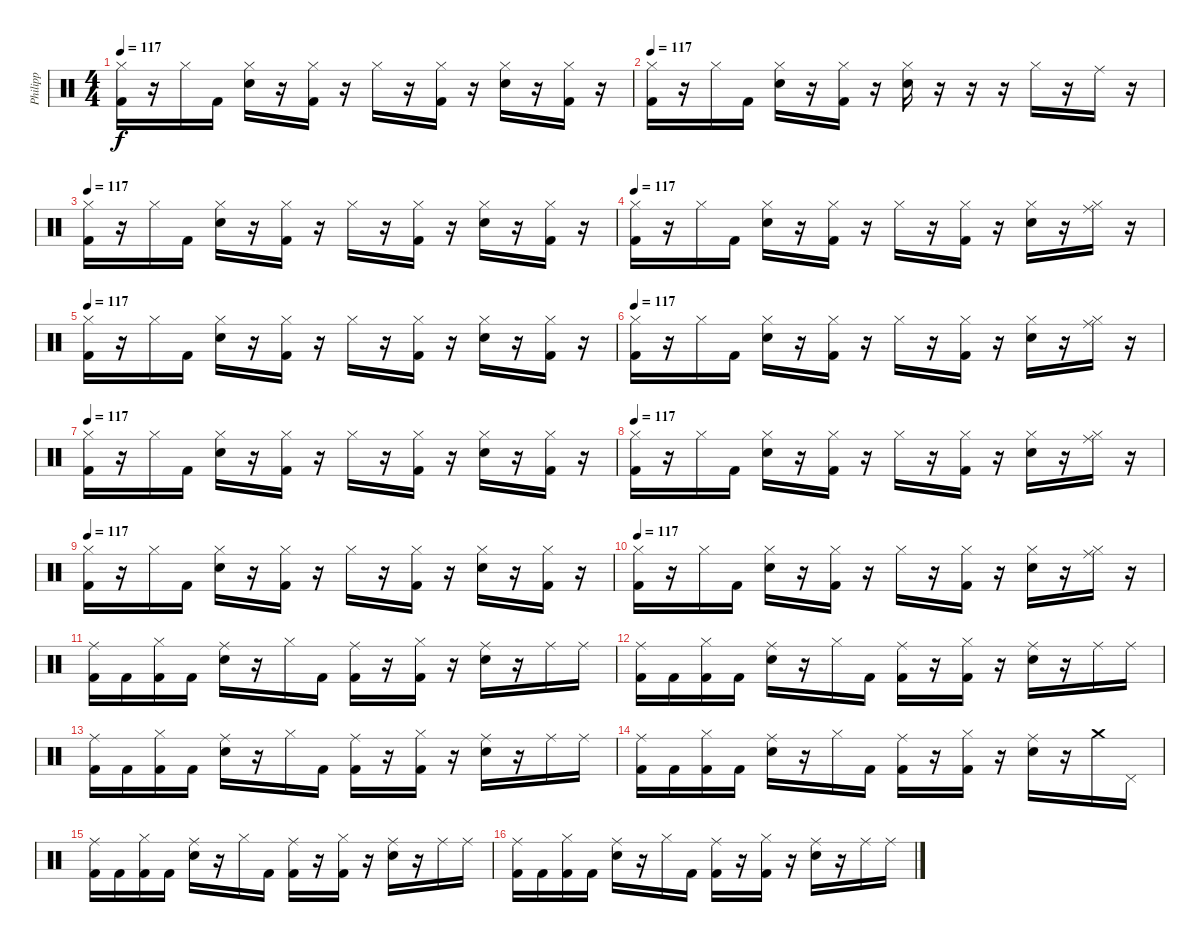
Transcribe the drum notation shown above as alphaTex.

\track ("Philipp" "Philipp") {instrument percussion}
\staff {score}
\articulation defaults
\ts (4 4)
\tempo 117
\clef neutral
\ks c
("Hi-Hat (closed)" "Kick (hit) 2").16{dy f} r.16 "Hi-Hat (closed)".16 "Kick (hit) 2".16 ("Hi-Hat (closed)" "Electric Snare (hit)").16 r.16 ("Hi-Hat (closed)" "Kick (hit) 2").16 r.16 "Hi-Hat (closed)".16 r.16 ("Hi-Hat (closed)" "Kick (hit) 2").16 r.16 ("Hi-Hat (closed)" "Electric Snare (hit)").16 r.16 ("Hi-Hat (closed)" "Kick (hit) 2").16 r.16 |
\tempo 117
("Hi-Hat (closed)" "Kick (hit) 2").16 r.16 "Hi-Hat (closed)".16 "Kick (hit) 2".16 ("Hi-Hat (closed)" "Electric Snare (hit)").16 r.16 ("Hi-Hat (closed)" "Kick (hit) 2").16 r.16 ("Hi-Hat (closed)" "Electric Snare (hit)").16 r.16 r.16 r.16 "Hi-Hat (closed)".16 r.16 "Ride (middle)".16 r.16 |
\tempo 117
("Hi-Hat (closed)" "Kick (hit) 2").16 r.16 "Hi-Hat (closed)".16 "Kick (hit) 2".16 ("Hi-Hat (closed)" "Electric Snare (hit)").16 r.16 ("Hi-Hat (closed)" "Kick (hit) 2").16 r.16 "Hi-Hat (closed)".16 r.16 ("Hi-Hat (closed)" "Kick (hit) 2").16 r.16 ("Hi-Hat (closed)" "Electric Snare (hit)").16 r.16 ("Hi-Hat (closed)" "Kick (hit) 2").16 r.16 |
\tempo 117
("Hi-Hat (closed)" "Kick (hit) 2").16 r.16 "Hi-Hat (closed)".16 "Kick (hit) 2".16 ("Hi-Hat (closed)" "Electric Snare (hit)").16 r.16 ("Hi-Hat (closed)" "Kick (hit) 2").16 r.16 "Hi-Hat (closed)".16 r.16 ("Hi-Hat (closed)" "Kick (hit) 2").16 r.16 ("Hi-Hat (closed)" "Electric Snare (hit)").16 r.16 ("Hi-Hat (closed)" "Ride (middle)").16 r.16 |
\tempo 117
("Hi-Hat (closed)" "Kick (hit) 2").16 r.16 "Hi-Hat (closed)".16 "Kick (hit) 2".16 ("Hi-Hat (closed)" "Electric Snare (hit)").16 r.16 ("Hi-Hat (closed)" "Kick (hit) 2").16 r.16 "Hi-Hat (closed)".16 r.16 ("Hi-Hat (closed)" "Kick (hit) 2").16 r.16 ("Hi-Hat (closed)" "Electric Snare (hit)").16 r.16 ("Hi-Hat (closed)" "Kick (hit) 2").16 r.16 |
\tempo 117
("Hi-Hat (closed)" "Kick (hit) 2").16 r.16 "Hi-Hat (closed)".16 "Kick (hit) 2".16 ("Hi-Hat (closed)" "Electric Snare (hit)").16 r.16 ("Hi-Hat (closed)" "Kick (hit) 2").16 r.16 "Hi-Hat (closed)".16 r.16 ("Hi-Hat (closed)" "Kick (hit) 2").16 r.16 ("Hi-Hat (closed)" "Electric Snare (hit)").16 r.16 ("Hi-Hat (closed)" "Ride (middle)").16 r.16 |
\tempo 117
("Hi-Hat (closed)" "Kick (hit) 2").16 r.16 "Hi-Hat (closed)".16 "Kick (hit) 2".16 ("Hi-Hat (closed)" "Electric Snare (hit)").16 r.16 ("Hi-Hat (closed)" "Kick (hit) 2").16 r.16 "Hi-Hat (closed)".16 r.16 ("Hi-Hat (closed)" "Kick (hit) 2").16 r.16 ("Hi-Hat (closed)" "Electric Snare (hit)").16 r.16 ("Hi-Hat (closed)" "Kick (hit) 2").16 r.16 |
\tempo 117
("Hi-Hat (closed)" "Kick (hit) 2").16 r.16 "Hi-Hat (closed)".16 "Kick (hit) 2".16 ("Hi-Hat (closed)" "Electric Snare (hit)").16 r.16 ("Hi-Hat (closed)" "Kick (hit) 2").16 r.16 "Hi-Hat (closed)".16 r.16 ("Hi-Hat (closed)" "Kick (hit) 2").16 r.16 ("Hi-Hat (closed)" "Electric Snare (hit)").16 r.16 ("Hi-Hat (closed)" "Ride (middle)").16 r.16 |
\tempo 117
("Hi-Hat (closed)" "Kick (hit) 2").16 r.16 "Hi-Hat (closed)".16 "Kick (hit) 2".16 ("Hi-Hat (closed)" "Electric Snare (hit)").16 r.16 ("Hi-Hat (closed)" "Kick (hit) 2").16 r.16 "Hi-Hat (closed)".16 r.16 ("Hi-Hat (closed)" "Kick (hit) 2").16 r.16 ("Hi-Hat (closed)" "Electric Snare (hit)").16 r.16 ("Hi-Hat (closed)" "Kick (hit) 2").16 r.16 |
\tempo 117
("Hi-Hat (closed)" "Kick (hit) 2").16 r.16 "Hi-Hat (closed)".16 "Kick (hit) 2".16 ("Hi-Hat (closed)" "Electric Snare (hit)").16 r.16 ("Hi-Hat (closed)" "Kick (hit) 2").16 r.16 "Hi-Hat (closed)".16 r.16 ("Hi-Hat (closed)" "Kick (hit) 2").16 r.16 ("Hi-Hat (closed)" "Electric Snare (hit)").16 r.16 ("Hi-Hat (closed)" "Ride (middle)").16 r.16 |
("Ride (middle)" "Kick (hit) 2").16 "Kick (hit) 2".16 ("Hi-Hat (closed)" "Kick (hit) 2").16 "Kick (hit) 2".16 ("Ride (middle)" "Electric Snare (hit)").16 r.16 "Hi-Hat (closed)".16 "Kick (hit) 2".16 ("Ride (middle)" "Kick (hit) 2").16 r.16 ("Hi-Hat (closed)" "Kick (hit) 2").16 r.16 ("Ride (middle)" "Electric Snare (hit)").16 r.16 "Ride (middle)".16 "Ride (middle)".16 |
("Ride (middle)" "Kick (hit) 2").16 "Kick (hit) 2".16 ("Hi-Hat (closed)" "Kick (hit) 2").16 "Kick (hit) 2".16 ("Ride (middle)" "Electric Snare (hit)").16 r.16 "Hi-Hat (closed)".16 "Kick (hit) 2".16 ("Ride (middle)" "Kick (hit) 2").16 r.16 ("Hi-Hat (closed)" "Kick (hit) 2").16 r.16 ("Ride (middle)" "Electric Snare (hit)").16 r.16 "Ride (middle)".16 "Ride (middle)".16 |
("Ride (middle)" "Kick (hit) 2").16 "Kick (hit) 2".16 ("Hi-Hat (closed)" "Kick (hit) 2").16 "Kick (hit) 2".16 ("Ride (middle)" "Electric Snare (hit)").16 r.16 "Hi-Hat (closed)".16 "Kick (hit) 2".16 ("Ride (middle)" "Kick (hit) 2").16 r.16 ("Hi-Hat (closed)" "Kick (hit) 2").16 r.16 ("Ride (middle)" "Electric Snare (hit)").16 r.16 "Ride (middle)".16 "Ride (middle)".16 |
("Ride (middle)" "Kick (hit) 2").16 "Kick (hit) 2".16 ("Hi-Hat (closed)" "Kick (hit) 2").16 "Kick (hit) 2".16 ("Ride (middle)" "Electric Snare (hit)").16 r.16 "Hi-Hat (closed)".16 "Kick (hit) 2".16 ("Ride (middle)" "Kick (hit) 2").16 r.16 ("Hi-Hat (closed)" "Kick (hit) 2").16 r.16 ("Ride (middle)" "Electric Snare (hit)").16 r.16 "Crash medium (hit)".16 "Pedal Hi-Hat (hit)".16 |
("Ride (middle)" "Kick (hit) 2").16 "Kick (hit) 2".16 ("Hi-Hat (closed)" "Kick (hit) 2").16 "Kick (hit) 2".16 ("Ride (middle)" "Electric Snare (hit)").16 r.16 "Hi-Hat (closed)".16 "Kick (hit) 2".16 ("Ride (middle)" "Kick (hit) 2").16 r.16 ("Hi-Hat (closed)" "Kick (hit) 2").16 r.16 ("Ride (middle)" "Electric Snare (hit)").16 r.16 "Ride (middle)".16 "Ride (middle)".16 |
("Ride (middle)" "Kick (hit) 2").16 "Kick (hit) 2".16 ("Hi-Hat (closed)" "Kick (hit) 2").16 "Kick (hit) 2".16 ("Ride (middle)" "Electric Snare (hit)").16 r.16 "Hi-Hat (closed)".16 "Kick (hit) 2".16 ("Ride (middle)" "Kick (hit) 2").16 r.16 ("Hi-Hat (closed)" "Kick (hit) 2").16 r.16 ("Ride (middle)" "Electric Snare (hit)").16 r.16 "Ride (middle)".16 "Ride (middle)".16
